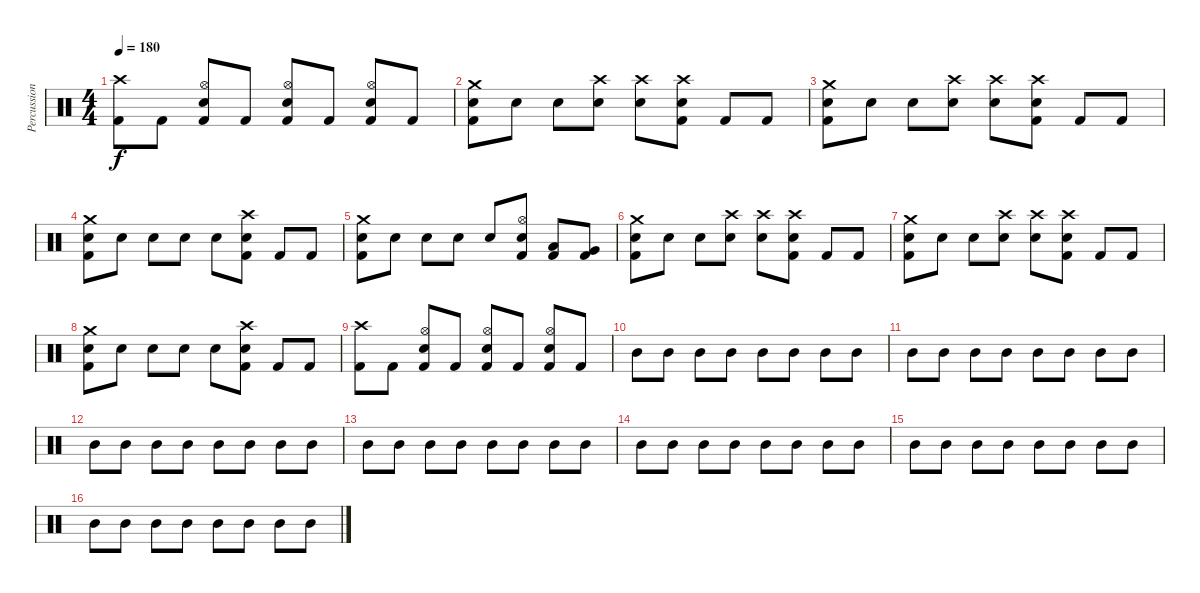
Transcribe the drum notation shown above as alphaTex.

\track ("Percussion" "Percussion") {instrument percussion}
\staff {score}
\articulation defaults
\ts (4 4)
\tempo 180
\clef neutral
\ks c
("Crash high (hit)" "Kick (hit) 2").8{dy f} "Kick (hit) 2".8 ("Hi-Hat (open)" "Electric Snare (hit)" "Kick (hit) 2").8 "Kick (hit) 2".8 ("Hi-Hat (open)" "Electric Snare (hit)" "Kick (hit) 2").8 "Kick (hit) 2".8 ("Hi-Hat (open)" "Electric Snare (hit)" "Kick (hit) 2").8 "Kick (hit) 2".8 |
("Crash medium (hit)" "Electric Snare (hit)" "Kick (hit) 2").8 "Electric Snare (hit)".8 "Electric Snare (hit)".8 ("Crash high (hit)" "Electric Snare (hit)").8 ("Crash high (hit)" "Electric Snare (hit)").8 ("Crash high (hit)" "Electric Snare (hit)" "Kick (hit) 2").8 "Kick (hit) 2".8 "Kick (hit) 2".8 |
("Crash medium (hit)" "Electric Snare (hit)" "Kick (hit) 2").8 "Electric Snare (hit)".8 "Electric Snare (hit)".8 ("Crash high (hit)" "Electric Snare (hit)").8 ("Crash high (hit)" "Electric Snare (hit)").8 ("Crash high (hit)" "Electric Snare (hit)" "Kick (hit) 2").8 "Kick (hit) 2".8 "Kick (hit) 2".8 |
("Crash medium (hit)" "Electric Snare (hit)" "Kick (hit) 2").8 "Electric Snare (hit)".8 "Electric Snare (hit)".8 "Electric Snare (hit)".8 "Electric Snare (hit)".8 ("Crash high (hit)" "Electric Snare (hit)" "Kick (hit) 2").8 "Kick (hit) 2".8 "Kick (hit) 2".8 |
("Crash medium (hit)" "Electric Snare (hit)" "Kick (hit) 2").8 "Electric Snare (hit)".8 "Electric Snare (hit)".8 "Electric Snare (hit)".8 "Electric Snare (hit)".8 ("Hi-Hat (open)" "Electric Snare (hit)" "Kick (hit) 2").8 ("Low Tom (hit)" "Kick (hit) 2").8 ("Very Low Tom (hit)" "Kick (hit) 2").8 |
("Crash medium (hit)" "Electric Snare (hit)" "Kick (hit) 2").8 "Electric Snare (hit)".8 "Electric Snare (hit)".8 ("Crash high (hit)" "Electric Snare (hit)").8 ("Crash high (hit)" "Electric Snare (hit)").8 ("Crash high (hit)" "Electric Snare (hit)" "Kick (hit) 2").8 "Kick (hit) 2".8 "Kick (hit) 2".8 |
("Crash medium (hit)" "Electric Snare (hit)" "Kick (hit) 2").8 "Electric Snare (hit)".8 "Electric Snare (hit)".8 ("Crash high (hit)" "Electric Snare (hit)").8 ("Crash high (hit)" "Electric Snare (hit)").8 ("Crash high (hit)" "Electric Snare (hit)" "Kick (hit) 2").8 "Kick (hit) 2".8 "Kick (hit) 2".8 |
("Crash medium (hit)" "Electric Snare (hit)" "Kick (hit) 2").8 "Electric Snare (hit)".8 "Electric Snare (hit)".8 "Electric Snare (hit)".8 "Electric Snare (hit)".8 ("Crash high (hit)" "Electric Snare (hit)" "Kick (hit) 2").8 "Kick (hit) 2".8 "Kick (hit) 2".8 |
("Crash high (hit)" "Kick (hit) 2").8 "Kick (hit) 2".8 ("Hi-Hat (open)" "Electric Snare (hit)" "Kick (hit) 2").8 "Kick (hit) 2".8 ("Hi-Hat (open)" "Electric Snare (hit)" "Kick (hit) 2").8 "Kick (hit) 2".8 ("Hi-Hat (open)" "Electric Snare (hit)" "Kick (hit) 2").8 "Kick (hit) 2".8 |
"Mid Tom (hit)".8 "Mid Tom (hit)".8 "Mid Tom (hit)".8 "Mid Tom (hit)".8 "Mid Tom (hit)".8 "Mid Tom (hit)".8 "Mid Tom (hit)".8 "Mid Tom (hit)".8 |
"Mid Tom (hit)".8 "Mid Tom (hit)".8 "Mid Tom (hit)".8 "Mid Tom (hit)".8 "Mid Tom (hit)".8 "Mid Tom (hit)".8 "Mid Tom (hit)".8 "Mid Tom (hit)".8 |
"Mid Tom (hit)".8 "Mid Tom (hit)".8 "Mid Tom (hit)".8 "Mid Tom (hit)".8 "Mid Tom (hit)".8 "Mid Tom (hit)".8 "Mid Tom (hit)".8 "Mid Tom (hit)".8 |
"Mid Tom (hit)".8 "Mid Tom (hit)".8 "Mid Tom (hit)".8 "Mid Tom (hit)".8 "Mid Tom (hit)".8 "Mid Tom (hit)".8 "Mid Tom (hit)".8 "Mid Tom (hit)".8 |
"Mid Tom (hit)".8 "Mid Tom (hit)".8 "Mid Tom (hit)".8 "Mid Tom (hit)".8 "Mid Tom (hit)".8 "Mid Tom (hit)".8 "Mid Tom (hit)".8 "Mid Tom (hit)".8 |
"Mid Tom (hit)".8 "Mid Tom (hit)".8 "Mid Tom (hit)".8 "Mid Tom (hit)".8 "Mid Tom (hit)".8 "Mid Tom (hit)".8 "Mid Tom (hit)".8 "Mid Tom (hit)".8 |
"Mid Tom (hit)".8 "Mid Tom (hit)".8 "Mid Tom (hit)".8 "Mid Tom (hit)".8 "Mid Tom (hit)".8 "Mid Tom (hit)".8 "Mid Tom (hit)".8 "Mid Tom (hit)".8
